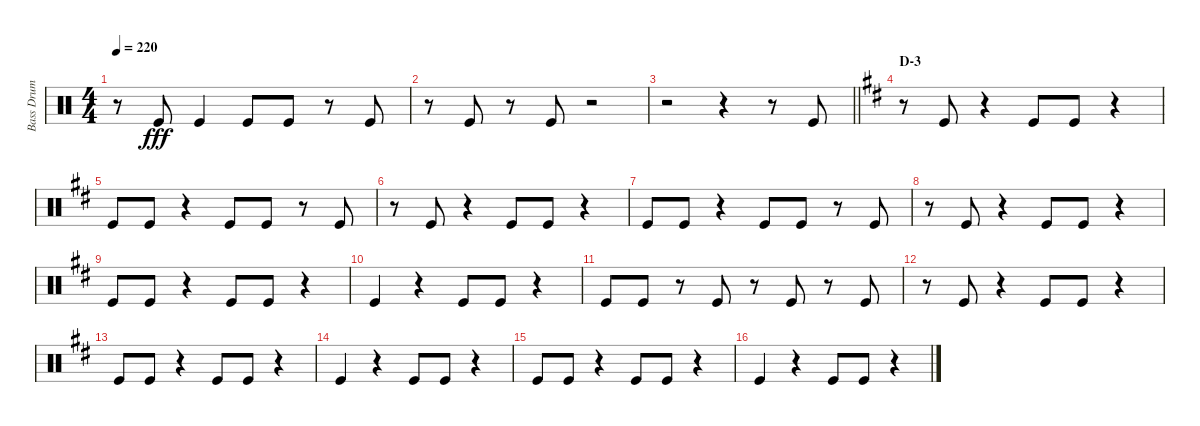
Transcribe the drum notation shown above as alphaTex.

\track ("Bass Drum" "Bass Drum") {instrument percussion}
\staff {score}
\articulation defaults
\ts (4 4)
\tempo 220
\clef neutral
\ks c
r.8{dy fff} "Kick (hit)".8 "Kick (hit)".4 "Kick (hit)".8 "Kick (hit)".8 r.8 "Kick (hit)".8 |
r.8 "Kick (hit)".8 r.8 "Kick (hit)".8 r.2 |
\barLineRight lightlight
r.2 r.4 r.8 "Kick (hit)".8 |
\section ("" "D-3")
\ks d
r.8 "Kick (hit)".8 r.4 "Kick (hit)".8 "Kick (hit)".8 r.4 |
"Kick (hit)".8 "Kick (hit)".8 r.4 "Kick (hit)".8 "Kick (hit)".8 r.8 "Kick (hit)".8 |
r.8 "Kick (hit)".8 r.4 "Kick (hit)".8 "Kick (hit)".8 r.4 |
"Kick (hit)".8 "Kick (hit)".8 r.4 "Kick (hit)".8 "Kick (hit)".8 r.8 "Kick (hit)".8 |
r.8 "Kick (hit)".8 r.4 "Kick (hit)".8 "Kick (hit)".8 r.4 |
"Kick (hit)".8 "Kick (hit)".8 r.4 "Kick (hit)".8 "Kick (hit)".8 r.4 |
"Kick (hit)".4 r.4 "Kick (hit)".8 "Kick (hit)".8 r.4 |
"Kick (hit)".8 "Kick (hit)".8 r.8 "Kick (hit)".8 r.8 "Kick (hit)".8 r.8 "Kick (hit)".8 |
r.8 "Kick (hit)".8 r.4 "Kick (hit)".8 "Kick (hit)".8 r.4 |
"Kick (hit)".8 "Kick (hit)".8 r.4 "Kick (hit)".8 "Kick (hit)".8 r.4 |
"Kick (hit)".4 r.4 "Kick (hit)".8 "Kick (hit)".8 r.4 |
"Kick (hit)".8 "Kick (hit)".8 r.4 "Kick (hit)".8 "Kick (hit)".8 r.4 |
"Kick (hit)".4 r.4 "Kick (hit)".8 "Kick (hit)".8 r.4
